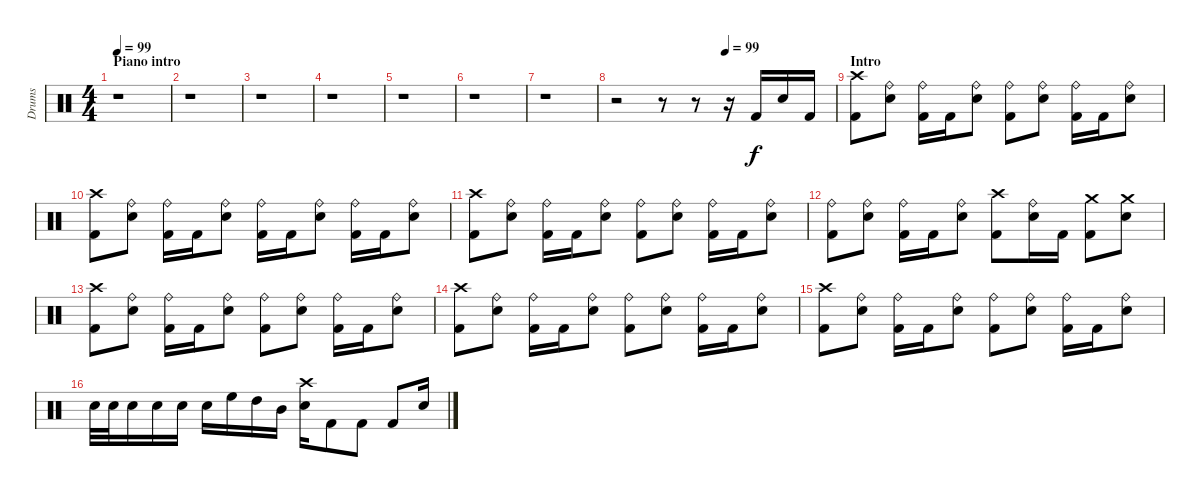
\track ("Drums" "Drums") {instrument percussion}
\staff {score}
\articulation defaults
\ts (4 4)
\section ("" "Piano intro")
\tempo 99
\tempo 90
\tempo 99
\clef neutral
\ks c
r.1{dy f} |
r.1 |
r.1 |
r.1 |
r.1 |
r.1 |
r.1 |
\tempo (99 0.5)
r.2 r.8 r.8 r.16 "Kick (hit) 2".16 "Electric Snare (hit)".16 "Kick (hit) 2".16 |
\section ("" "Intro")
("Kick (hit) 2" "Crash high (hit)").8 ("Electric Snare (hit)" "Ride (bell)").8 ("Kick (hit) 2" "Ride (bell)").16 "Kick (hit) 2".16 ("Electric Snare (hit)" "Ride (bell)").8 ("Kick (hit) 2" "Ride (bell)").8 ("Electric Snare (hit)" "Ride (bell)").8 ("Kick (hit) 2" "Ride (bell)").16 "Kick (hit) 2".16 ("Electric Snare (hit)" "Ride (bell)").8 |
("Kick (hit) 2" "Crash high (hit)").8 ("Electric Snare (hit)" "Ride (bell)").8 ("Kick (hit) 2" "Ride (bell)").16 "Kick (hit) 2".16 ("Electric Snare (hit)" "Ride (bell)").8 ("Kick (hit) 2" "Ride (bell)").16 "Kick (hit) 2".16 ("Electric Snare (hit)" "Ride (bell)").8 ("Kick (hit) 2" "Ride (bell)").16 "Kick (hit) 2".16 ("Electric Snare (hit)" "Ride (bell)").8 |
("Kick (hit) 2" "Crash high (hit)").8 ("Electric Snare (hit)" "Ride (bell)").8 ("Kick (hit) 2" "Ride (bell)").16 "Kick (hit) 2".16 ("Electric Snare (hit)" "Ride (bell)").8 ("Kick (hit) 2" "Ride (bell)").8 ("Electric Snare (hit)" "Ride (bell)").8 ("Kick (hit) 2" "Ride (bell)").16 "Kick (hit) 2".16 ("Electric Snare (hit)" "Ride (bell)").8 |
("Kick (hit) 2" "Ride (bell)").8 ("Electric Snare (hit)" "Ride (bell)").8 ("Kick (hit) 2" "Ride (bell)").16 "Kick (hit) 2".16 ("Electric Snare (hit)" "Ride (bell)").8 ("Kick (hit) 2" "Crash high (hit)").8 ("Electric Snare (hit)" "Ride (bell)").16 "Kick (hit) 2".16 ("Kick (hit) 2" "Crash medium (hit)").8 ("Electric Snare (hit)" "Crash medium (hit)").8 |
("Kick (hit) 2" "Crash high (hit)").8 ("Electric Snare (hit)" "Ride (bell)").8 ("Kick (hit) 2" "Ride (bell)").16 "Kick (hit) 2".16 ("Electric Snare (hit)" "Ride (bell)").8 ("Kick (hit) 2" "Ride (bell)").8 ("Electric Snare (hit)" "Ride (bell)").8 ("Kick (hit) 2" "Ride (bell)").16 "Kick (hit) 2".16 ("Electric Snare (hit)" "Ride (bell)").8 |
("Kick (hit) 2" "Crash high (hit)").8 ("Electric Snare (hit)" "Ride (bell)").8 ("Kick (hit) 2" "Ride (bell)").16 "Kick (hit) 2".16 ("Electric Snare (hit)" "Ride (bell)").8 ("Kick (hit) 2" "Ride (bell)").8 ("Electric Snare (hit)" "Ride (bell)").8 ("Kick (hit) 2" "Ride (bell)").16 "Kick (hit) 2".16 ("Electric Snare (hit)" "Ride (bell)").8 |
("Kick (hit) 2" "Crash high (hit)").8 ("Electric Snare (hit)" "Ride (bell)").8 ("Kick (hit) 2" "Ride (bell)").16 "Kick (hit) 2".16 ("Electric Snare (hit)" "Ride (bell)").8 ("Kick (hit) 2" "Ride (bell)").8 ("Electric Snare (hit)" "Ride (bell)").8 ("Kick (hit) 2" "Ride (bell)").16 "Kick (hit) 2".16 ("Electric Snare (hit)" "Ride (bell)").8 |
"Electric Snare (hit)".32 "Electric Snare (hit)".32 "Electric Snare (hit)".16 "Electric Snare (hit)".16 "Electric Snare (hit)".16 "Electric Snare (hit)".16 "High Floor Tom (hit)".16 "High Tom (hit)".16 "Mid Tom (hit)".16 ("Electric Snare (hit)" "Crash high (hit)").16 "Kick (hit) 2".8 "Kick (hit) 2".8 "Kick (hit) 2".8 "Electric Snare (hit)".16
